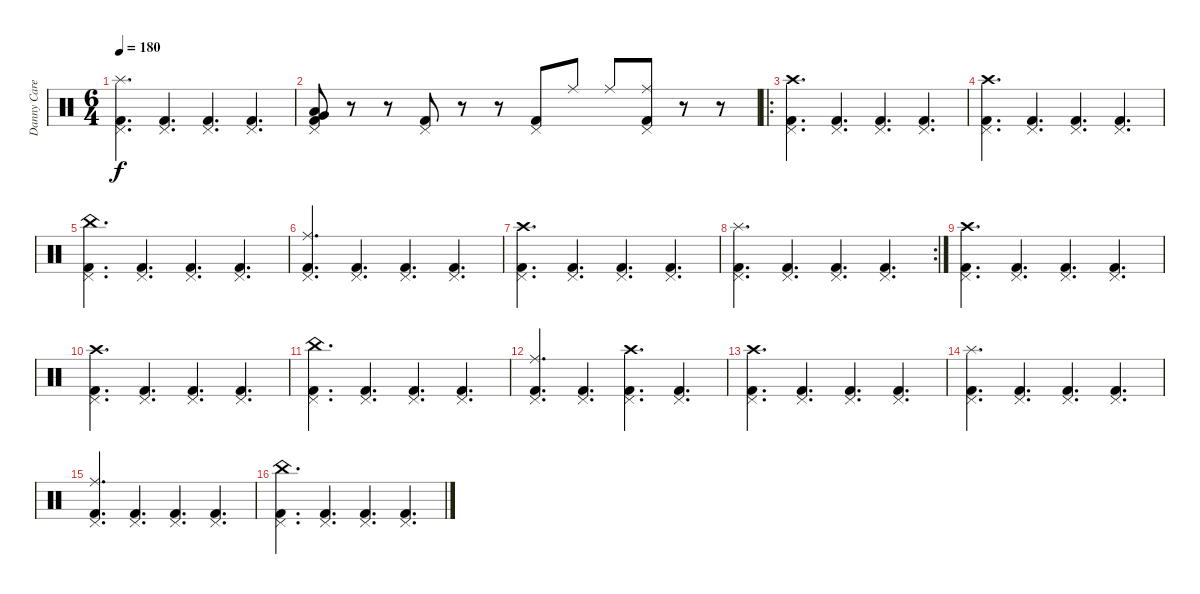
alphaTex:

\track ("Danny Carey" "Danny Care") {instrument percussion}
\staff {score}
\articulation defaults
\ts (6 4)
\tempo 180
\clef neutral
\ks c
("Splash (hit)" "Pedal Hi-Hat (hit)" "Kick (hit) 2").4{d dy f} ("Pedal Hi-Hat (hit)" "Kick (hit) 2").4{d} ("Pedal Hi-Hat (hit)" "Kick (hit) 2").4{d} ("Pedal Hi-Hat (hit)" "Kick (hit) 2").4{d} |
("Kick (hit) 2" "Very Low Tom (hit)" "Pedal Hi-Hat (hit)" "Low Floor Tom (hit)").8 r.8 r.8 ("Pedal Hi-Hat (hit)" "Kick (hit) 2").8 r.8 r.8 ("Pedal Hi-Hat (hit)" "Kick (hit) 2").8 "Ride (middle)".8 "Ride (middle)".8 ("Ride (middle)" "Pedal Hi-Hat (hit)" "Kick (hit) 2").8 r.8 r.8 |
\ro
("Crash high (hit)" "Pedal Hi-Hat (hit)" "Kick (hit) 2").4{d} ("Pedal Hi-Hat (hit)" "Kick (hit) 2").4{d} ("Pedal Hi-Hat (hit)" "Kick (hit) 2").4{d} ("Pedal Hi-Hat (hit)" "Kick (hit) 2").4{d} |
("Crash high (hit)" "Pedal Hi-Hat (hit)" "Kick (hit) 2").4{d} ("Pedal Hi-Hat (hit)" "Kick (hit) 2").4{d} ("Pedal Hi-Hat (hit)" "Kick (hit) 2").4{d} ("Pedal Hi-Hat (hit)" "Kick (hit) 2").4{d} |
("China (hit)" "Pedal Hi-Hat (hit)" "Kick (hit) 2").4{d} ("Pedal Hi-Hat (hit)" "Kick (hit) 2").4{d} ("Pedal Hi-Hat (hit)" "Kick (hit) 2").4{d} ("Pedal Hi-Hat (hit)" "Kick (hit) 2").4{d} |
("Ride (middle)" "Pedal Hi-Hat (hit)" "Kick (hit) 2").4{d} ("Pedal Hi-Hat (hit)" "Kick (hit) 2").4{d} ("Pedal Hi-Hat (hit)" "Kick (hit) 2").4{d} ("Pedal Hi-Hat (hit)" "Kick (hit) 2").4{d} |
("Crash high (hit)" "Pedal Hi-Hat (hit)" "Kick (hit) 2").4{d} ("Pedal Hi-Hat (hit)" "Kick (hit) 2").4{d} ("Pedal Hi-Hat (hit)" "Kick (hit) 2").4{d} ("Pedal Hi-Hat (hit)" "Kick (hit) 2").4{d} |
\rc 2
("Splash (hit)" "Pedal Hi-Hat (hit)" "Kick (hit) 2").4{d} ("Pedal Hi-Hat (hit)" "Kick (hit) 2").4{d} ("Pedal Hi-Hat (hit)" "Kick (hit) 2").4{d} ("Pedal Hi-Hat (hit)" "Kick (hit) 2").4{d} |
("Crash high (hit)" "Pedal Hi-Hat (hit)" "Kick (hit) 2").4{d} ("Pedal Hi-Hat (hit)" "Kick (hit) 2").4{d} ("Pedal Hi-Hat (hit)" "Kick (hit) 2").4{d} ("Pedal Hi-Hat (hit)" "Kick (hit) 2").4{d} |
("Crash high (hit)" "Pedal Hi-Hat (hit)" "Kick (hit) 2").4{d} ("Pedal Hi-Hat (hit)" "Kick (hit) 2").4{d} ("Pedal Hi-Hat (hit)" "Kick (hit) 2").4{d} ("Pedal Hi-Hat (hit)" "Kick (hit) 2").4{d} |
("China (hit)" "Pedal Hi-Hat (hit)" "Kick (hit) 2").4{d} ("Pedal Hi-Hat (hit)" "Kick (hit) 2").4{d} ("Pedal Hi-Hat (hit)" "Kick (hit) 2").4{d} ("Pedal Hi-Hat (hit)" "Kick (hit) 2").4{d} |
("Ride (middle)" "Pedal Hi-Hat (hit)" "Kick (hit) 2").4{d} ("Pedal Hi-Hat (hit)" "Kick (hit) 2").4{d} ("Crash high (hit)" "Pedal Hi-Hat (hit)" "Kick (hit) 2").4{d} ("Pedal Hi-Hat (hit)" "Kick (hit) 2").4{d} |
("Crash high (hit)" "Pedal Hi-Hat (hit)" "Kick (hit) 2").4{d} ("Pedal Hi-Hat (hit)" "Kick (hit) 2").4{d} ("Pedal Hi-Hat (hit)" "Kick (hit) 2").4{d} ("Pedal Hi-Hat (hit)" "Kick (hit) 2").4{d} |
("Splash (hit)" "Pedal Hi-Hat (hit)" "Kick (hit) 2").4{d} ("Pedal Hi-Hat (hit)" "Kick (hit) 2").4{d} ("Pedal Hi-Hat (hit)" "Kick (hit) 2").4{d} ("Pedal Hi-Hat (hit)" "Kick (hit) 2").4{d} |
("Ride (middle)" "Pedal Hi-Hat (hit)" "Kick (hit) 2").4{d} ("Pedal Hi-Hat (hit)" "Kick (hit) 2").4{d} ("Pedal Hi-Hat (hit)" "Kick (hit) 2").4{d} ("Pedal Hi-Hat (hit)" "Kick (hit) 2").4{d} |
("China (hit)" "Pedal Hi-Hat (hit)" "Kick (hit) 2").4{d} ("Pedal Hi-Hat (hit)" "Kick (hit) 2").4{d} ("Pedal Hi-Hat (hit)" "Kick (hit) 2").4{d} ("Pedal Hi-Hat (hit)" "Kick (hit) 2").4{d}
